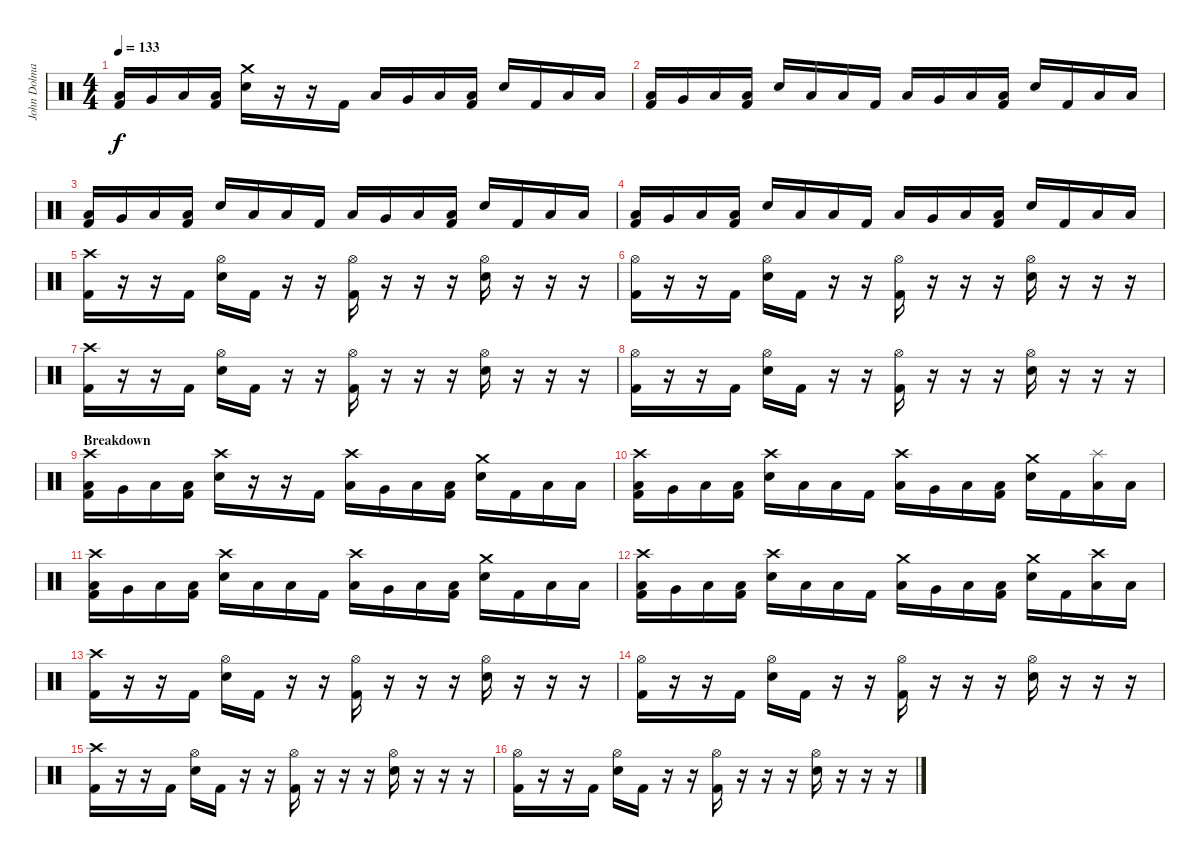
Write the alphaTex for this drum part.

\track ("John Dolmayan" "John Dolma") {instrument percussion}
\staff {score}
\articulation defaults
\ts (4 4)
\tempo 133
\clef neutral
\ks c
("Low Tom (hit)" "Kick (hit) 2").16{dy f} "Very Low Tom (hit)".16 "Low Floor Tom (hit)".16 ("Low Floor Tom (hit)" "Kick (hit) 2").16 ("Crash medium (hit)" "Electric Snare (hit)").16 r.16 r.16 "Kick (hit) 2".16 "Low Tom (hit)".16 "Very Low Tom (hit)".16 "Low Floor Tom (hit)".16 ("Low Floor Tom (hit)" "Kick (hit) 2").16 "Electric Snare (hit)".16 "Kick (hit) 2".16 "Low Floor Tom (hit)".16 "Low Floor Tom (hit)".16 |
("Low Tom (hit)" "Kick (hit) 2").16 "Very Low Tom (hit)".16 "Low Floor Tom (hit)".16 ("Low Floor Tom (hit)" "Kick (hit) 2").16 "Electric Snare (hit)".16 "Low Floor Tom (hit)".16 "Low Floor Tom (hit)".16 "Kick (hit) 2".16 "Low Tom (hit)".16 "Very Low Tom (hit)".16 "Low Floor Tom (hit)".16 ("Low Floor Tom (hit)" "Kick (hit) 2").16 "Electric Snare (hit)".16 "Kick (hit) 2".16 "Low Floor Tom (hit)".16 "Low Floor Tom (hit)".16 |
("Low Tom (hit)" "Kick (hit) 2").16 "Very Low Tom (hit)".16 "Low Floor Tom (hit)".16 ("Low Floor Tom (hit)" "Kick (hit) 2").16 "Electric Snare (hit)".16 "Low Floor Tom (hit)".16 "Low Floor Tom (hit)".16 "Kick (hit) 2".16 "Low Tom (hit)".16 "Very Low Tom (hit)".16 "Low Floor Tom (hit)".16 ("Low Floor Tom (hit)" "Kick (hit) 2").16 "Electric Snare (hit)".16 "Kick (hit) 2".16 "Low Floor Tom (hit)".16 "Low Floor Tom (hit)".16 |
("Low Tom (hit)" "Kick (hit) 2").16 "Very Low Tom (hit)".16 "Low Floor Tom (hit)".16 ("Low Floor Tom (hit)" "Kick (hit) 2").16 "Electric Snare (hit)".16 "Low Floor Tom (hit)".16 "Low Floor Tom (hit)".16 "Kick (hit) 2".16 "Low Tom (hit)".16 "Very Low Tom (hit)".16 "Low Floor Tom (hit)".16 ("Low Floor Tom (hit)" "Kick (hit) 2").16 "Electric Snare (hit)".16 "Kick (hit) 2".16 "Low Floor Tom (hit)".16 "Low Floor Tom (hit)".16 |
("Crash high (hit)" "Kick (hit) 2").16 r.16 r.16 "Kick (hit) 2".16 ("Hi-Hat (open)" "Electric Snare (hit)").16 "Kick (hit) 2".16 r.16 r.16 ("Hi-Hat (open)" "Kick (hit) 2").16 r.16 r.16 r.16 ("Hi-Hat (open)" "Electric Snare (hit)").16 r.16 r.16 r.16 |
("Hi-Hat (open)" "Kick (hit) 2").16 r.16 r.16 "Kick (hit) 2".16 ("Hi-Hat (open)" "Electric Snare (hit)").16 "Kick (hit) 2".16 r.16 r.16 ("Hi-Hat (open)" "Kick (hit) 2").16 r.16 r.16 r.16 ("Hi-Hat (open)" "Electric Snare (hit)").16 r.16 r.16 r.16 |
("Crash high (hit)" "Kick (hit) 2").16 r.16 r.16 "Kick (hit) 2".16 ("Hi-Hat (open)" "Electric Snare (hit)").16 "Kick (hit) 2".16 r.16 r.16 ("Hi-Hat (open)" "Kick (hit) 2").16 r.16 r.16 r.16 ("Hi-Hat (open)" "Electric Snare (hit)").16 r.16 r.16 r.16 |
("Hi-Hat (open)" "Kick (hit) 2").16 r.16 r.16 "Kick (hit) 2".16 ("Hi-Hat (open)" "Electric Snare (hit)").16 "Kick (hit) 2".16 r.16 r.16 ("Hi-Hat (open)" "Kick (hit) 2").16 r.16 r.16 r.16 ("Hi-Hat (open)" "Electric Snare (hit)").16 r.16 r.16 r.16 |
\section ("" "Breakdown")
("Crash high (hit)" "Low Tom (hit)" "Kick (hit) 2").16 "Very Low Tom (hit)".16 "Low Floor Tom (hit)".16 ("Low Floor Tom (hit)" "Kick (hit) 2").16 ("Crash high (hit)" "Electric Snare (hit)").16 r.16 r.16 "Kick (hit) 2".16 ("Crash high (hit)" "Low Tom (hit)").16 "Very Low Tom (hit)".16 "Low Floor Tom (hit)".16 ("Low Floor Tom (hit)" "Kick (hit) 2").16 ("Crash medium (hit)" "Electric Snare (hit)").16 "Kick (hit) 2".16 "Low Floor Tom (hit)".16 "Low Floor Tom (hit)".16 |
("Crash high (hit)" "Low Tom (hit)" "Kick (hit) 2").16 "Very Low Tom (hit)".16 "Low Floor Tom (hit)".16 ("Low Floor Tom (hit)" "Kick (hit) 2").16 ("Crash high (hit)" "Electric Snare (hit)").16 "Low Floor Tom (hit)".16 "Low Floor Tom (hit)".16 "Kick (hit) 2".16 ("Crash high (hit)" "Low Tom (hit)").16 "Very Low Tom (hit)".16 "Low Floor Tom (hit)".16 ("Low Floor Tom (hit)" "Kick (hit) 2").16 ("Crash medium (hit)" "Electric Snare (hit)").16 "Kick (hit) 2".16 ("Splash (hit)" "Low Floor Tom (hit)").16 "Low Floor Tom (hit)".16 |
("Crash high (hit)" "Low Tom (hit)" "Kick (hit) 2").16 "Very Low Tom (hit)".16 "Low Floor Tom (hit)".16 ("Low Floor Tom (hit)" "Kick (hit) 2").16 ("Crash high (hit)" "Electric Snare (hit)").16 "Low Floor Tom (hit)".16 "Low Floor Tom (hit)".16 "Kick (hit) 2".16 ("Crash high (hit)" "Low Tom (hit)").16 "Very Low Tom (hit)".16 "Low Floor Tom (hit)".16 ("Low Floor Tom (hit)" "Kick (hit) 2").16 ("Crash medium (hit)" "Electric Snare (hit)").16 "Kick (hit) 2".16 "Low Floor Tom (hit)".16 "Low Floor Tom (hit)".16 |
("Crash high (hit)" "Low Tom (hit)" "Kick (hit) 2").16 "Very Low Tom (hit)".16 "Low Floor Tom (hit)".16 ("Low Floor Tom (hit)" "Kick (hit) 2").16 ("Crash high (hit)" "Electric Snare (hit)").16 "Low Floor Tom (hit)".16 "Low Floor Tom (hit)".16 "Kick (hit) 2".16 ("Crash medium (hit)" "Low Tom (hit)").16 "Very Low Tom (hit)".16 "Low Floor Tom (hit)".16 ("Low Floor Tom (hit)" "Kick (hit) 2").16 ("Crash medium (hit)" "Electric Snare (hit)").16 "Kick (hit) 2".16 ("Crash high (hit)" "Low Floor Tom (hit)").16 "Low Floor Tom (hit)".16 |
("Crash high (hit)" "Kick (hit) 2").16 r.16 r.16 "Kick (hit) 2".16 ("Hi-Hat (open)" "Electric Snare (hit)").16 "Kick (hit) 2".16 r.16 r.16 ("Hi-Hat (open)" "Kick (hit) 2").16 r.16 r.16 r.16 ("Hi-Hat (open)" "Electric Snare (hit)").16 r.16 r.16 r.16 |
("Hi-Hat (open)" "Kick (hit) 2").16 r.16 r.16 "Kick (hit) 2".16 ("Hi-Hat (open)" "Electric Snare (hit)").16 "Kick (hit) 2".16 r.16 r.16 ("Hi-Hat (open)" "Kick (hit) 2").16 r.16 r.16 r.16 ("Hi-Hat (open)" "Electric Snare (hit)").16 r.16 r.16 r.16 |
("Crash high (hit)" "Kick (hit) 2").16 r.16 r.16 "Kick (hit) 2".16 ("Hi-Hat (open)" "Electric Snare (hit)").16 "Kick (hit) 2".16 r.16 r.16 ("Hi-Hat (open)" "Kick (hit) 2").16 r.16 r.16 r.16 ("Hi-Hat (open)" "Electric Snare (hit)").16 r.16 r.16 r.16 |
("Hi-Hat (open)" "Kick (hit) 2").16 r.16 r.16 "Kick (hit) 2".16 ("Hi-Hat (open)" "Electric Snare (hit)").16 "Kick (hit) 2".16 r.16 r.16 ("Hi-Hat (open)" "Kick (hit) 2").16 r.16 r.16 r.16 ("Hi-Hat (open)" "Electric Snare (hit)").16 r.16 r.16 r.16
